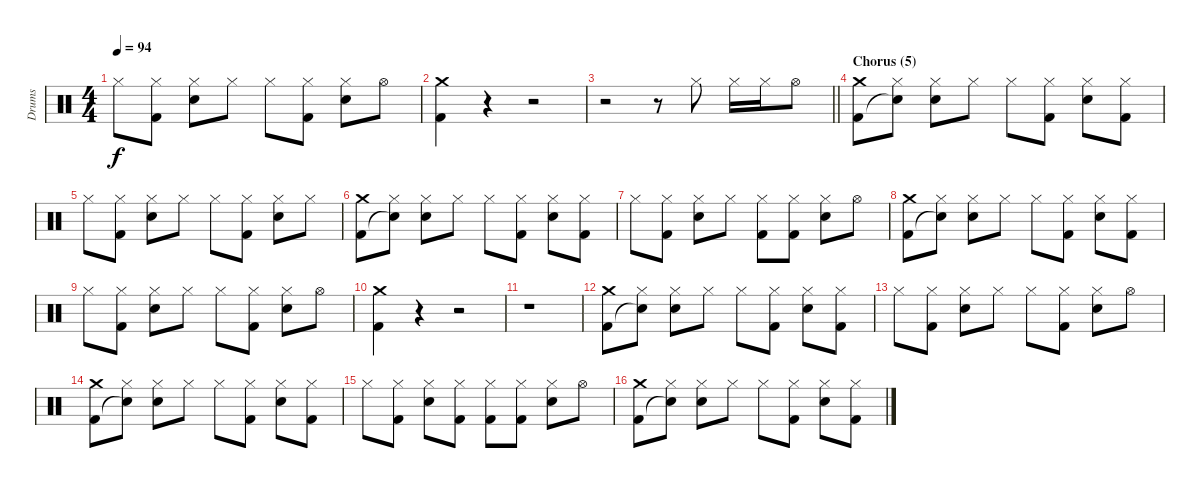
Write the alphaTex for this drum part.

\track ("Drums" "Drums") {instrument percussion}
\staff {score}
\articulation defaults
\ts (4 4)
\tempo 94
\clef neutral
\ks aminor "Hi-Hat (closed)".8{dy f}
("Hi-Hat (closed)" "Kick (hit) 2").8 ("Hi-Hat (closed)" "Electric Snare (hit)").8 "Hi-Hat (closed)".8 "Hi-Hat (closed)".8 ("Hi-Hat (closed)" "Kick (hit) 2").8 ("Hi-Hat (closed)" "Electric Snare (hit)").8 "Hi-Hat (open)".8 |
("Crash medium (hit)" "Kick (hit) 2").4 r.4 r.2 |
\barLineRight lightlight
r.2 r.8 "Hi-Hat (closed)".8 "Hi-Hat (closed)".16 "Hi-Hat (closed)".16 "Hi-Hat (open)".8 |
\section ("" "Chorus (5)")
("Crash medium (hit)" "Kick (hit) 2").8 ("Hi-Hat (closed)" "Snare (hit)"{t}).8 ("Hi-Hat (closed)" "Electric Snare (hit)").8 "Hi-Hat (closed)".8 "Hi-Hat (closed)".8 ("Hi-Hat (closed)" "Kick (hit) 2").8 ("Hi-Hat (closed)" "Electric Snare (hit)").8 ("Hi-Hat (closed)" "Kick (hit) 2").8 |
"Hi-Hat (closed)".8 ("Hi-Hat (closed)" "Kick (hit) 2").8 ("Hi-Hat (closed)" "Electric Snare (hit)").8 "Hi-Hat (closed)".8 "Hi-Hat (closed)".8 ("Hi-Hat (closed)" "Kick (hit) 2").8 ("Hi-Hat (closed)" "Electric Snare (hit)").8 "Hi-Hat (closed)".8 |
("Crash medium (hit)" "Kick (hit) 2").8 ("Hi-Hat (closed)" "Snare (hit)"{t}).8 ("Hi-Hat (closed)" "Electric Snare (hit)").8 "Hi-Hat (closed)".8 "Hi-Hat (closed)".8 ("Hi-Hat (closed)" "Kick (hit) 2").8 ("Hi-Hat (closed)" "Electric Snare (hit)").8 ("Hi-Hat (closed)" "Kick (hit) 2").8 |
"Hi-Hat (closed)".8 ("Hi-Hat (closed)" "Kick (hit) 2").8 ("Hi-Hat (closed)" "Electric Snare (hit)").8 "Hi-Hat (closed)".8 ("Hi-Hat (closed)" "Kick (hit) 2").8 ("Hi-Hat (closed)" "Kick (hit) 2").8 ("Hi-Hat (closed)" "Electric Snare (hit)").8 "Hi-Hat (open)".8 |
("Crash medium (hit)" "Kick (hit) 2").8 ("Hi-Hat (closed)" "Snare (hit)"{t}).8 ("Hi-Hat (closed)" "Electric Snare (hit)").8 "Hi-Hat (closed)".8 "Hi-Hat (closed)".8 ("Hi-Hat (closed)" "Kick (hit) 2").8 ("Hi-Hat (closed)" "Electric Snare (hit)").8 ("Hi-Hat (closed)" "Kick (hit) 2").8 |
"Hi-Hat (closed)".8 ("Hi-Hat (closed)" "Kick (hit) 2").8 ("Hi-Hat (closed)" "Electric Snare (hit)").8 "Hi-Hat (closed)".8 "Hi-Hat (closed)".8 ("Hi-Hat (closed)" "Kick (hit) 2").8 ("Hi-Hat (closed)" "Electric Snare (hit)").8 "Hi-Hat (open)".8 |
("Crash medium (hit)" "Kick (hit) 2").4 r.4 r.2 |
r.1 |
("Crash medium (hit)" "Kick (hit) 2").8 ("Hi-Hat (closed)" "Snare (hit)"{t}).8 ("Hi-Hat (closed)" "Electric Snare (hit)").8 "Hi-Hat (closed)".8 "Hi-Hat (closed)".8 ("Hi-Hat (closed)" "Kick (hit) 2").8 ("Hi-Hat (closed)" "Electric Snare (hit)").8 ("Hi-Hat (closed)" "Kick (hit) 2").8 |
"Hi-Hat (closed)".8 ("Hi-Hat (closed)" "Kick (hit) 2").8 ("Hi-Hat (closed)" "Electric Snare (hit)").8 "Hi-Hat (closed)".8 "Hi-Hat (closed)".8 ("Hi-Hat (closed)" "Kick (hit) 2").8 ("Hi-Hat (closed)" "Electric Snare (hit)").8 "Hi-Hat (open)".8 |
("Crash medium (hit)" "Kick (hit) 2").8 ("Hi-Hat (closed)" "Snare (hit)"{t}).8 ("Hi-Hat (closed)" "Electric Snare (hit)").8 "Hi-Hat (closed)".8 "Hi-Hat (closed)".8 ("Hi-Hat (closed)" "Kick (hit) 2").8 ("Hi-Hat (closed)" "Electric Snare (hit)").8 ("Hi-Hat (closed)" "Kick (hit) 2").8 |
"Hi-Hat (closed)".8 ("Hi-Hat (closed)" "Kick (hit) 2").8 ("Hi-Hat (closed)" "Electric Snare (hit)").8 ("Hi-Hat (closed)" "Kick (hit) 2").8 ("Hi-Hat (closed)" "Kick (hit) 2").8 ("Hi-Hat (closed)" "Kick (hit) 2").8 ("Hi-Hat (closed)" "Electric Snare (hit)").8 "Hi-Hat (open)".8 |
("Crash medium (hit)" "Kick (hit) 2").8 ("Hi-Hat (closed)" "Snare (hit)"{t}).8 ("Hi-Hat (closed)" "Electric Snare (hit)").8 "Hi-Hat (closed)".8 "Hi-Hat (closed)".8 ("Hi-Hat (closed)" "Kick (hit) 2").8 ("Hi-Hat (closed)" "Electric Snare (hit)").8 ("Hi-Hat (closed)" "Kick (hit) 2").8
